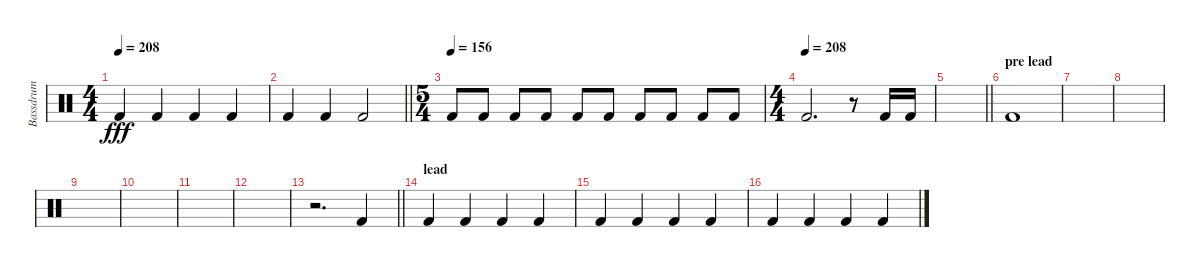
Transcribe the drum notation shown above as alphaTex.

\track ("Bassdrum" "Bassdrum") {instrument percussion}
\staff {score}
\articulation defaults
\ts (4 4)
\tempo 208
\clef neutral
\ks c "Kick (hit) 2".4{dy fff} "Kick (hit) 2".4 "Kick (hit) 2".4 "Kick (hit) 2".4
|
\barLineRight lightlight "Kick (hit) 2".4 "Kick (hit) 2".4 "Kick (hit) 2".2
|
\ts (5 4)
\section ("" "")
\tempo (156)
"Kick (hit) 2".8 "Kick (hit) 2".8 "Kick (hit) 2".8 "Kick (hit) 2".8 "Kick (hit) 2".8 "Kick (hit) 2".8 "Kick (hit) 2".8 "Kick (hit) 2".8 "Kick (hit) 2".8 "Kick (hit) 2".8 |
\ts (4 4)
\tempo (208)
"Kick (hit) 2".2{d} r.8 "Kick (hit) 2".16 "Kick (hit) 2".16 |
\barLineRight lightlight
|
\section ("" "pre lead")
"Kick (hit) 2".1 |
|
|
|
|
|
|
\barLineRight lightlight
r.2{d} "Kick (hit) 2".4 |
\section ("" "lead")
"Kick (hit) 2".4 "Kick (hit) 2".4 "Kick (hit) 2".4 "Kick (hit) 2".4 |
"Kick (hit) 2".4 "Kick (hit) 2".4 "Kick (hit) 2".4 "Kick (hit) 2".4 |
"Kick (hit) 2".4 "Kick (hit) 2".4 "Kick (hit) 2".4 "Kick (hit) 2".4
